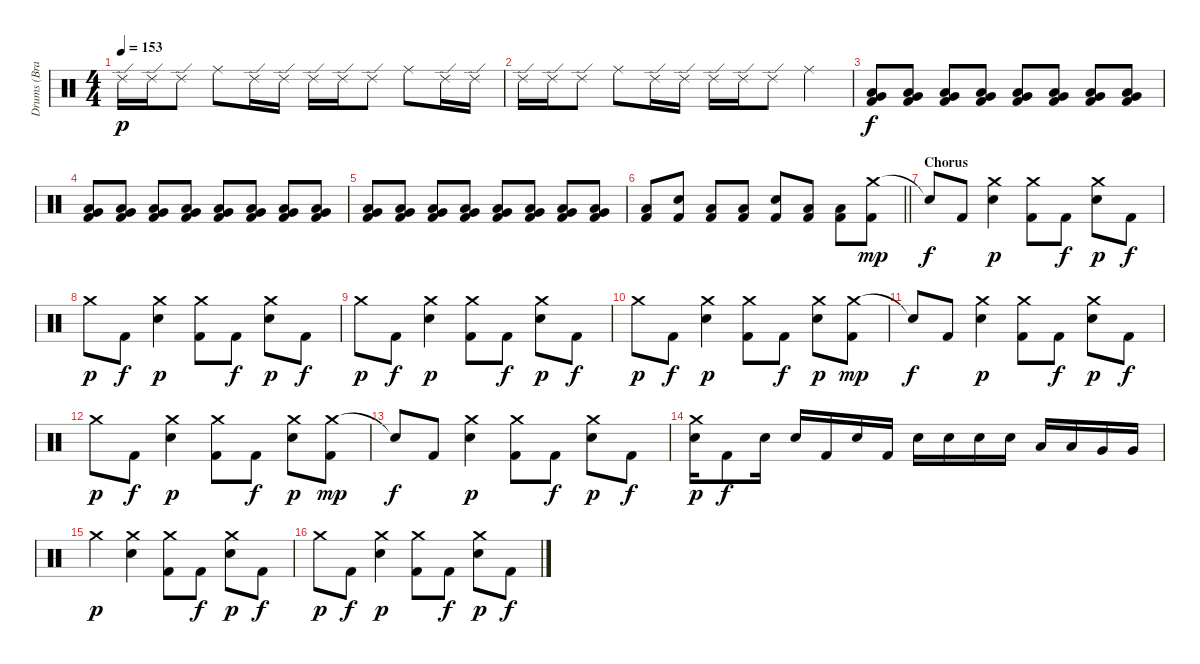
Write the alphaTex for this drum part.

\track ("Drums (Brandon Saller)" "Drums (Bra") {instrument percussion}
\staff {score}
\articulation defaults
\ts (4 4)
\tempo 153
\clef neutral
\ks c "Ride (edge) 2".16{dy p} "Ride (edge) 2".16 "Ride (edge) 2".8 "Ride (middle)".8 "Ride (edge) 2".16 "Ride (edge) 2".16 "Ride (edge) 2".16 "Ride (edge) 2".16 "Ride (edge) 2".8 "Ride (middle)".8 "Ride (edge) 2".16 "Ride (edge) 2".16
|
"Ride (edge) 2".16 "Ride (edge) 2".16 "Ride (edge) 2".8 "Ride (middle)".8 "Ride (edge) 2".16 "Ride (edge) 2".16 "Ride (edge) 2".16 "Ride (edge) 2".16 "Ride (edge) 2".8 "Ride (middle)".4 |
("Very Low Tom (hit)" "Low Floor Tom (hit)" "Kick (hit) 2").8{dy f} ("Very Low Tom (hit)" "Low Floor Tom (hit)" "Kick (hit) 2").8 ("Very Low Tom (hit)" "Low Floor Tom (hit)" "Kick (hit) 2").8 ("Very Low Tom (hit)" "Low Floor Tom (hit)" "Kick (hit) 2").8 ("Very Low Tom (hit)" "Low Floor Tom (hit)" "Kick (hit) 2").8 ("Very Low Tom (hit)" "Low Floor Tom (hit)" "Kick (hit) 2").8 ("Very Low Tom (hit)" "Low Floor Tom (hit)" "Kick (hit) 2").8 ("Very Low Tom (hit)" "Low Floor Tom (hit)" "Kick (hit) 2").8 |
("Very Low Tom (hit)" "Low Floor Tom (hit)" "Kick (hit) 2").8 ("Very Low Tom (hit)" "Low Floor Tom (hit)" "Kick (hit) 2").8 ("Very Low Tom (hit)" "Low Floor Tom (hit)" "Kick (hit) 2").8 ("Very Low Tom (hit)" "Low Floor Tom (hit)" "Kick (hit) 2").8 ("Very Low Tom (hit)" "Low Floor Tom (hit)" "Kick (hit) 2").8 ("Very Low Tom (hit)" "Low Floor Tom (hit)" "Kick (hit) 2").8 ("Very Low Tom (hit)" "Low Floor Tom (hit)" "Kick (hit) 2").8 ("Very Low Tom (hit)" "Low Floor Tom (hit)" "Kick (hit) 2").8 |
("Very Low Tom (hit)" "Low Floor Tom (hit)" "Kick (hit) 2").8 ("Very Low Tom (hit)" "Low Floor Tom (hit)" "Kick (hit) 2").8 ("Very Low Tom (hit)" "Low Floor Tom (hit)" "Kick (hit) 2").8 ("Very Low Tom (hit)" "Low Floor Tom (hit)" "Kick (hit) 2").8 ("Very Low Tom (hit)" "Low Floor Tom (hit)" "Kick (hit) 2").8 ("Very Low Tom (hit)" "Low Floor Tom (hit)" "Kick (hit) 2").8 ("Very Low Tom (hit)" "Low Floor Tom (hit)" "Kick (hit) 2").8 ("Very Low Tom (hit)" "Low Floor Tom (hit)" "Kick (hit) 2").8 |
\barLineRight lightlight
("Low Floor Tom (hit)" "Kick (hit) 2").8 ("Snare (hit) 2" "Kick (hit) 2").8 ("Low Floor Tom (hit)" "Kick (hit) 2").8 ("Low Floor Tom (hit)" "Kick (hit) 2").8 ("Snare (hit) 2" "Kick (hit) 2").8 ("Low Floor Tom (hit)" "Kick (hit) 2").8 ("Low Floor Tom (hit)" "Kick (hit) 2").8 ("Crash medium (hit)" "Kick (hit) 2").8{dy mp} |
\section ("" "Chorus")
"Snare (hit)"{t}.8{dy f} "Kick (hit) 2".8 ("Crash medium (hit)" "Electric Snare (hit)").4{dy p} ("Crash medium (hit)" "Kick (hit) 2").8 "Kick (hit) 2".8{dy f} ("Crash medium (hit)" "Electric Snare (hit)").8{dy p} "Kick (hit) 2".8{dy f} |
"Crash medium (hit)".8{dy p} "Kick (hit) 2".8{dy f} ("Crash medium (hit)" "Electric Snare (hit)").4{dy p} ("Crash medium (hit)" "Kick (hit) 2").8 "Kick (hit) 2".8{dy f} ("Crash medium (hit)" "Electric Snare (hit)").8{dy p} "Kick (hit) 2".8{dy f} |
"Crash medium (hit)".8{dy p} "Kick (hit) 2".8{dy f} ("Crash medium (hit)" "Electric Snare (hit)").4{dy p} ("Crash medium (hit)" "Kick (hit) 2").8 "Kick (hit) 2".8{dy f} ("Crash medium (hit)" "Electric Snare (hit)").8{dy p} "Kick (hit) 2".8{dy f} |
"Crash medium (hit)".8{dy p} "Kick (hit) 2".8{dy f} ("Crash medium (hit)" "Electric Snare (hit)").4{dy p} ("Crash medium (hit)" "Kick (hit) 2").8 "Kick (hit) 2".8{dy f} ("Crash medium (hit)" "Electric Snare (hit)").8{dy p} ("Crash medium (hit)" "Kick (hit) 2").8{dy mp} |
"Snare (hit)"{t}.8{dy f} "Kick (hit) 2".8 ("Crash medium (hit)" "Electric Snare (hit)").4{dy p} ("Crash medium (hit)" "Kick (hit) 2").8 "Kick (hit) 2".8{dy f} ("Crash medium (hit)" "Electric Snare (hit)").8{dy p} "Kick (hit) 2".8{dy f} |
"Crash medium (hit)".8{dy p} "Kick (hit) 2".8{dy f} ("Crash medium (hit)" "Electric Snare (hit)").4{dy p} ("Crash medium (hit)" "Kick (hit) 2").8 "Kick (hit) 2".8{dy f} ("Crash medium (hit)" "Electric Snare (hit)").8{dy p} ("Crash medium (hit)" "Kick (hit) 2").8{dy mp} |
"Snare (hit)"{t}.8{dy f} "Kick (hit) 2".8 ("Crash medium (hit)" "Electric Snare (hit)").4{dy p} ("Crash medium (hit)" "Kick (hit) 2").8 "Kick (hit) 2".8{dy f} ("Crash medium (hit)" "Electric Snare (hit)").8{dy p} "Kick (hit) 2".8{dy f} |
("Crash medium (hit)" "Electric Snare (hit)").16{dy p} "Kick (hit) 2".8{dy f} "Electric Snare (hit)".16 "Electric Snare (hit)".16 "Kick (hit) 2".16 "Electric Snare (hit)".16 "Kick (hit) 2".16 "Electric Snare (hit)".16 "Electric Snare (hit)".16 "Electric Snare (hit)".16 "Electric Snare (hit)".16 "Low Tom (hit)".16 "Low Tom (hit)".16 "Very Low Tom (hit)".16 "Very Low Tom (hit)".16 |
"Crash medium (hit)".4{dy p} ("Crash medium (hit)" "Electric Snare (hit)").4 ("Crash medium (hit)" "Kick (hit) 2").8 "Kick (hit) 2".8{dy f} ("Crash medium (hit)" "Electric Snare (hit)").8{dy p} "Kick (hit) 2".8{dy f} |
"Crash medium (hit)".8{dy p} "Kick (hit) 2".8{dy f} ("Crash medium (hit)" "Electric Snare (hit)").4{dy p} ("Crash medium (hit)" "Kick (hit) 2").8 "Kick (hit) 2".8{dy f} ("Crash medium (hit)" "Electric Snare (hit)").8{dy p} "Kick (hit) 2".8{dy f}
